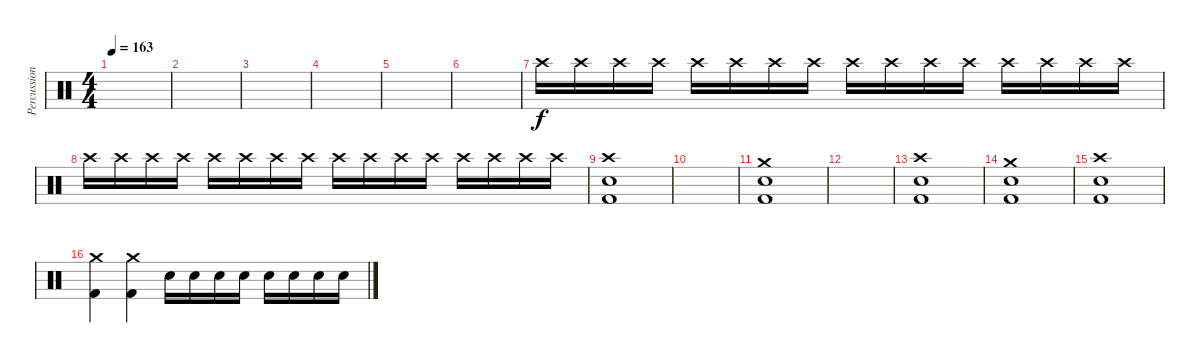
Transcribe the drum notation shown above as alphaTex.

\track ("Percussion" "Percussion") {instrument percussion}
\staff {score}
\articulation defaults
\ts (4 4)
\tempo 163
\clef neutral
\ks c
|
|
|
|
|
|
"Crash high (hit)".16{volume 0} "Crash high (hit)".16{volume 13} "Crash high (hit)".16 "Crash high (hit)".16 "Crash high (hit)".16 "Crash high (hit)".16 "Crash high (hit)".16 "Crash high (hit)".16 "Crash high (hit)".16 "Crash high (hit)".16 "Crash high (hit)".16 "Crash high (hit)".16 "Crash high (hit)".16 "Crash high (hit)".16 "Crash high (hit)".16 "Crash high (hit)".16 |
"Crash high (hit)".16 "Crash high (hit)".16 "Crash high (hit)".16 "Crash high (hit)".16 "Crash high (hit)".16 "Crash high (hit)".16 "Crash high (hit)".16 "Crash high (hit)".16 "Crash high (hit)".16 "Crash high (hit)".16 "Crash high (hit)".16 "Crash high (hit)".16 "Crash high (hit)".16 "Crash high (hit)".16 "Crash high (hit)".16 "Crash high (hit)".16 |
("Crash high (hit)" "Snare (hit) 2" "Kick (hit) 2").1 |
|
("Crash medium (hit)" "Snare (hit) 2" "Kick (hit) 2").1 |
|
("Crash high (hit)" "Snare (hit) 2" "Kick (hit) 2").1 |
("Crash medium (hit)" "Snare (hit) 2" "Kick (hit) 2").1 |
("Crash high (hit)" "Snare (hit) 2" "Kick (hit) 2").1 |
("Crash medium (hit)" "Kick (hit) 2").4 ("Crash medium (hit)" "Kick (hit) 2").4 "Snare (hit) 2".16 "Snare (hit) 2".16 "Snare (hit) 2".16 "Snare (hit) 2".16 "Snare (hit) 2".16 "Snare (hit) 2".16 "Snare (hit) 2".16 "Snare (hit) 2".16
